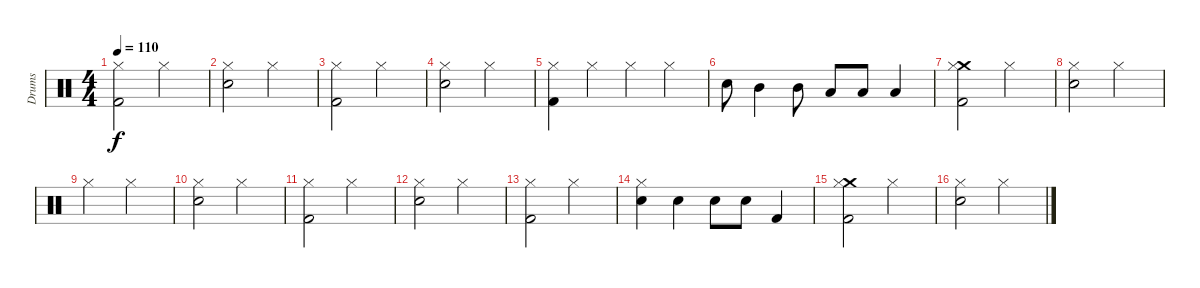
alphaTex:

\track ("Drums" "Drums") {instrument percussion}
\staff {score}
\articulation defaults
\ts (4 4)
\tempo 110
\clef neutral
\ks c
("Hi-Hat (closed)" "Kick (hit) 2").2{dy f} "Hi-Hat (closed)".2 |
("Hi-Hat (closed)" "Snare (hit) 2").2 "Hi-Hat (closed)".2 |
("Hi-Hat (closed)" "Kick (hit) 2").2 "Hi-Hat (closed)".2 |
("Hi-Hat (closed)" "Snare (hit) 2").2 "Hi-Hat (closed)".2 |
("Hi-Hat (closed)" "Kick (hit) 2").4 "Hi-Hat (closed)".4 "Hi-Hat (closed)".4 "Hi-Hat (closed)".4 |
"Snare (hit) 2".8 "Mid Tom (hit)".4 "Mid Tom (hit)".8 "Low Tom (hit)".8 "Low Tom (hit)".8 "Low Tom (hit)".4 |
("Crash medium (hit)" "Kick (hit) 2" "Hi-Hat (closed)").2 "Hi-Hat (closed)".2 |
("Hi-Hat (closed)" "Snare (hit) 2").2 "Hi-Hat (closed)".2 |
"Hi-Hat (closed)".2 "Hi-Hat (closed)".2 |
("Hi-Hat (closed)" "Snare (hit) 2").2 "Hi-Hat (closed)".2 |
("Hi-Hat (closed)" "Kick (hit) 2").2 "Hi-Hat (closed)".2 |
("Hi-Hat (closed)" "Snare (hit) 2").2 "Hi-Hat (closed)".2 |
("Hi-Hat (closed)" "Kick (hit) 2").2 "Hi-Hat (closed)".2 |
("Hi-Hat (closed)" "Snare (hit) 2").4 "Snare (hit) 2".4 "Snare (hit) 2".8 "Snare (hit) 2".8 "Kick (hit) 2".4 |
("Crash medium (hit)" "Kick (hit) 2" "Hi-Hat (closed)").2 "Hi-Hat (closed)".2 |
("Hi-Hat (closed)" "Snare (hit) 2").2 "Hi-Hat (closed)".2
